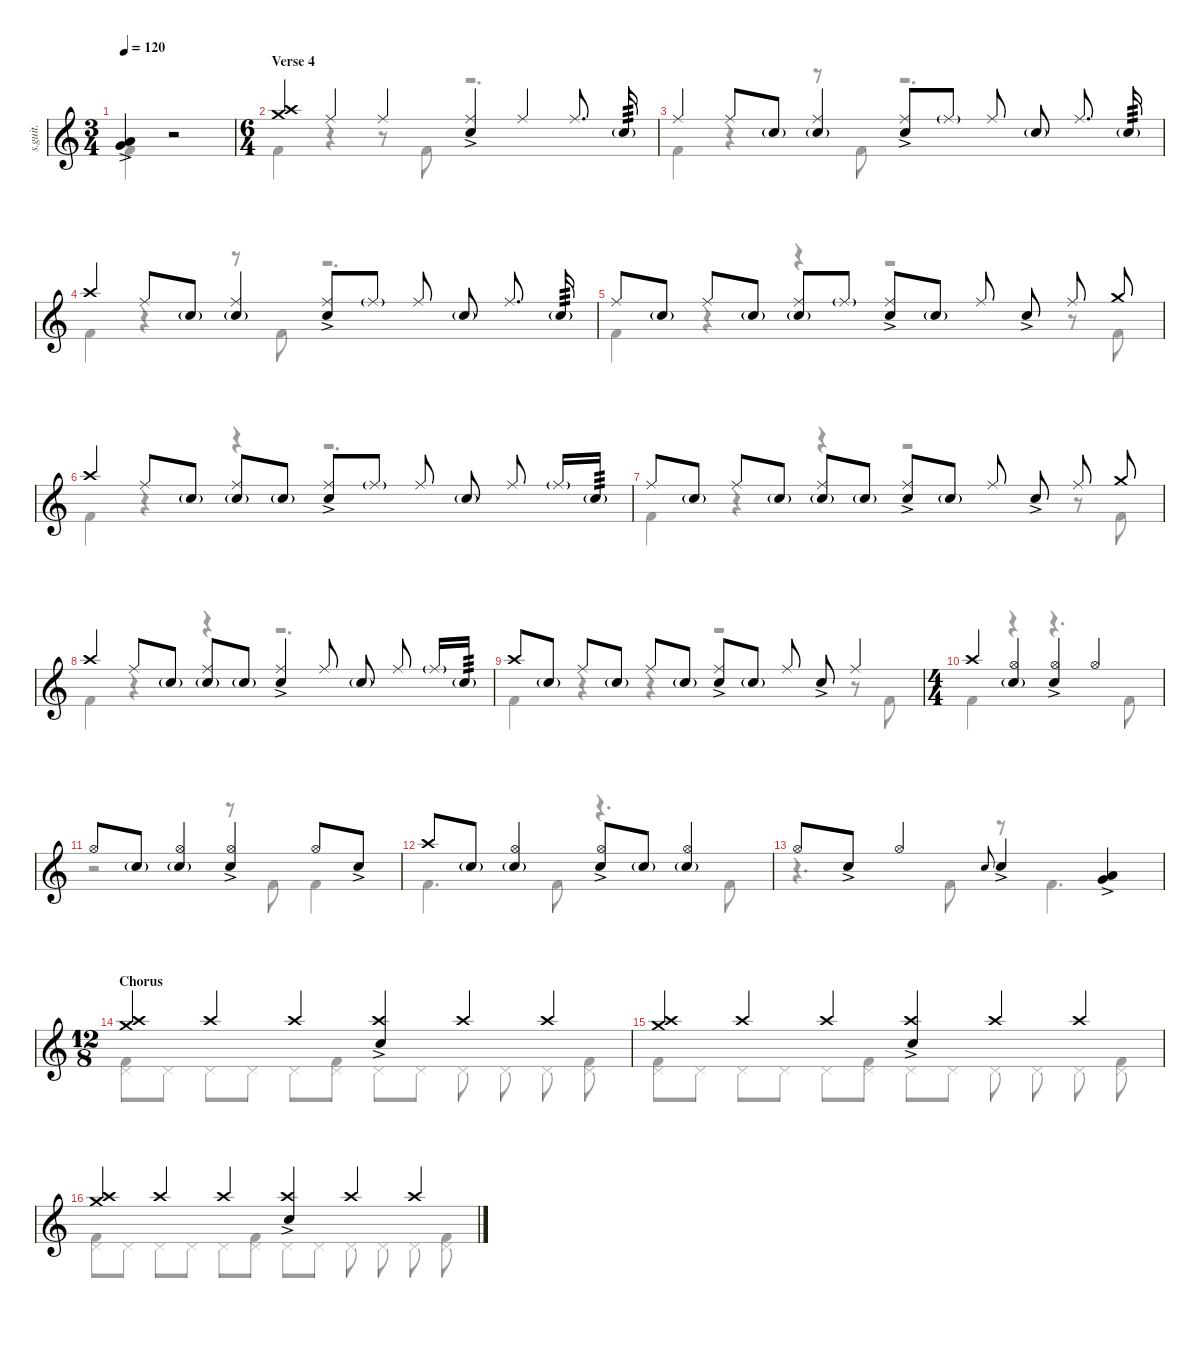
\defaultSystemsLayout 4
\hideDynamics
\bracketExtendMode nobrackets
\track ("Percussion" "s.guit.") {instrument percussion}
\staff {score}
\articulation defaults
\voice
\ts (3 4)
\beaming (8 2 2 2 2)
\tempo 120
\clef g2
\ks c
("Low Tom (hit)"{ac} "Very Low Tom (hit)"{ac}).4{lyrics (0 "") lyrics (1 "") lyrics (2 "") lyrics (3 "") lyrics (4 "") dy mp} r.2 |
\ts (6 4)
\beaming (8 2 2 2 2)
\section ("" "Verse 4")
("Crash high (hit)" "Crash medium (hit)").4{lyrics (0 "") lyrics (1 "") lyrics (2 "") lyrics (3 "") lyrics (4 "") dy mf} "Ride (middle)".4{lyrics (0 "") lyrics (1 "") lyrics (2 "") lyrics (3 "") lyrics (4 "")} "Ride (middle)".4{lyrics (0 "") lyrics (1 "") lyrics (2 "") lyrics (3 "") lyrics (4 "")} ("Ride (middle)" "Snare (hit) 2"{ac}).4{lyrics (0 "") lyrics (1 "") lyrics (2 "") lyrics (3 "") lyrics (4 "")} "Ride (middle)".4{lyrics (0 "") lyrics (1 "") lyrics (2 "") lyrics (3 "") lyrics (4 "")} "Ride (middle)".8{d lyrics (0 "") lyrics (1 "") lyrics (2 "") lyrics (3 "") lyrics (4 "")} "Snare (hit) 2"{g}.16{lyrics (0 "") lyrics (1 "") lyrics (2 "") lyrics (3 "") lyrics (4 "") tp 3 dy f} |
"Ride (middle)".4{lyrics (0 "") lyrics (1 "") lyrics (2 "") lyrics (3 "") lyrics (4 "") dy mf} "Ride (middle)".8{lyrics (0 "") lyrics (1 "") lyrics (2 "") lyrics (3 "") lyrics (4 "")} "Snare (hit) 2"{g}.8{lyrics (0 "") lyrics (1 "") lyrics (2 "") lyrics (3 "") lyrics (4 "") dy f} ("Ride (middle)" "Snare (hit) 2"{g}).4{lyrics (0 "") lyrics (1 "") lyrics (2 "") lyrics (3 "") lyrics (4 "") dy mf} ("Ride (middle)" "Snare (hit) 2"{ac}).8{lyrics (0 "") lyrics (1 "") lyrics (2 "") lyrics (3 "") lyrics (4 "")} "Ride (middle)"{g}.8{lyrics (0 "") lyrics (1 "") lyrics (2 "") lyrics (3 "") lyrics (4 "") dy f} "Ride (middle)".8{lyrics (0 "") lyrics (1 "") lyrics (2 "") lyrics (3 "") lyrics (4 "") dy mf} "Snare (hit) 2"{g}.8{lyrics (0 "") lyrics (1 "") lyrics (2 "") lyrics (3 "") lyrics (4 "") dy f} "Ride (middle)".8{d lyrics (0 "") lyrics (1 "") lyrics (2 "") lyrics (3 "") lyrics (4 "") dy mf} "Snare (hit) 2"{g}.16{lyrics (0 "") lyrics (1 "") lyrics (2 "") lyrics (3 "") lyrics (4 "") tp 3 dy f} |
"Crash high (hit)".4{lyrics (0 "") lyrics (1 "") lyrics (2 "") lyrics (3 "") lyrics (4 "") dy mf} "Ride (middle)".8{lyrics (0 "") lyrics (1 "") lyrics (2 "") lyrics (3 "") lyrics (4 "")} "Snare (hit) 2"{g}.8{lyrics (0 "") lyrics (1 "") lyrics (2 "") lyrics (3 "") lyrics (4 "") dy f} ("Ride (middle)" "Snare (hit) 2"{g}).4{lyrics (0 "") lyrics (1 "") lyrics (2 "") lyrics (3 "") lyrics (4 "") dy mf} ("Ride (middle)" "Snare (hit) 2"{ac}).8{lyrics (0 "") lyrics (1 "") lyrics (2 "") lyrics (3 "") lyrics (4 "")} "Ride (middle)"{g}.8{lyrics (0 "") lyrics (1 "") lyrics (2 "") lyrics (3 "") lyrics (4 "") dy f} "Ride (middle)".8{lyrics (0 "") lyrics (1 "") lyrics (2 "") lyrics (3 "") lyrics (4 "") dy mf} "Snare (hit) 2"{g}.8{lyrics (0 "") lyrics (1 "") lyrics (2 "") lyrics (3 "") lyrics (4 "") dy f} "Ride (middle)".8{d lyrics (0 "") lyrics (1 "") lyrics (2 "") lyrics (3 "") lyrics (4 "") dy mf} "Snare (hit) 2"{g}.16{lyrics (0 "") lyrics (1 "") lyrics (2 "") lyrics (3 "") lyrics (4 "") tp 3 dy f} |
"Ride (middle)".8{lyrics (0 "") lyrics (1 "") lyrics (2 "") lyrics (3 "") lyrics (4 "") dy mf} "Snare (hit) 2"{g}.8{lyrics (0 "") lyrics (1 "") lyrics (2 "") lyrics (3 "") lyrics (4 "") dy f} "Ride (middle)".8{lyrics (0 "") lyrics (1 "") lyrics (2 "") lyrics (3 "") lyrics (4 "") dy mf} "Snare (hit) 2"{g}.8{lyrics (0 "") lyrics (1 "") lyrics (2 "") lyrics (3 "") lyrics (4 "") dy f} ("Ride (middle)" "Snare (hit) 2"{g}).8{lyrics (0 "") lyrics (1 "") lyrics (2 "") lyrics (3 "") lyrics (4 "") dy mf} "Ride (middle)"{g}.8{lyrics (0 "") lyrics (1 "") lyrics (2 "") lyrics (3 "") lyrics (4 "") dy f} ("Ride (middle)" "Snare (hit) 2"{ac}).8{lyrics (0 "") lyrics (1 "") lyrics (2 "") lyrics (3 "") lyrics (4 "") dy mf} "Snare (hit) 2"{g}.8{lyrics (0 "") lyrics (1 "") lyrics (2 "") lyrics (3 "") lyrics (4 "") dy f} "Ride (middle)".8{lyrics (0 "") lyrics (1 "") lyrics (2 "") lyrics (3 "") lyrics (4 "") dy mf} "Snare (hit) 2"{ac}.8{lyrics (0 "") lyrics (1 "") lyrics (2 "") lyrics (3 "") lyrics (4 "") dy mp} "Ride (middle)".8{lyrics (0 "") lyrics (1 "") lyrics (2 "") lyrics (3 "") lyrics (4 "") dy mf} "Crash medium (hit)".8{lyrics (0 "") lyrics (1 "") lyrics (2 "") lyrics (3 "") lyrics (4 "")} |
"Crash high (hit)".4{lyrics (0 "") lyrics (1 "") lyrics (2 "") lyrics (3 "") lyrics (4 "")} "Ride (middle)".8{lyrics (0 "") lyrics (1 "") lyrics (2 "") lyrics (3 "") lyrics (4 "")} "Snare (hit) 2"{g}.8{lyrics (0 "") lyrics (1 "") lyrics (2 "") lyrics (3 "") lyrics (4 "") dy f} ("Ride (middle)" "Snare (hit) 2"{g}).8{lyrics (0 "") lyrics (1 "") lyrics (2 "") lyrics (3 "") lyrics (4 "") dy mf} "Snare (hit) 2"{g}.8{lyrics (0 "") lyrics (1 "") lyrics (2 "") lyrics (3 "") lyrics (4 "") dy f} ("Ride (middle)" "Snare (hit) 2"{ac}).8{lyrics (0 "") lyrics (1 "") lyrics (2 "") lyrics (3 "") lyrics (4 "") dy mf} "Ride (middle)"{g}.8{lyrics (0 "") lyrics (1 "") lyrics (2 "") lyrics (3 "") lyrics (4 "") dy f} "Ride (middle)".8{lyrics (0 "") lyrics (1 "") lyrics (2 "") lyrics (3 "") lyrics (4 "") dy mf} "Snare (hit) 2"{g}.8{lyrics (0 "") lyrics (1 "") lyrics (2 "") lyrics (3 "") lyrics (4 "") dy f} "Ride (middle)".8{lyrics (0 "") lyrics (1 "") lyrics (2 "") lyrics (3 "") lyrics (4 "") dy mf} "Ride (middle)"{g}.16{lyrics (0 "") lyrics (1 "") lyrics (2 "") lyrics (3 "") lyrics (4 "") dy f} "Snare (hit) 2"{g}.16{lyrics (0 "") lyrics (1 "") lyrics (2 "") lyrics (3 "") lyrics (4 "") tp 3} |
"Ride (middle)".8{lyrics (0 "") lyrics (1 "") lyrics (2 "") lyrics (3 "") lyrics (4 "") dy mf} "Snare (hit) 2"{g}.8{lyrics (0 "") lyrics (1 "") lyrics (2 "") lyrics (3 "") lyrics (4 "") dy f} "Ride (middle)".8{lyrics (0 "") lyrics (1 "") lyrics (2 "") lyrics (3 "") lyrics (4 "") dy mf} "Snare (hit) 2"{g}.8{lyrics (0 "") lyrics (1 "") lyrics (2 "") lyrics (3 "") lyrics (4 "") dy f} ("Ride (middle)" "Snare (hit) 2"{g}).8{lyrics (0 "") lyrics (1 "") lyrics (2 "") lyrics (3 "") lyrics (4 "") dy mf} "Snare (hit) 2"{g}.8{lyrics (0 "") lyrics (1 "") lyrics (2 "") lyrics (3 "") lyrics (4 "") dy f} ("Ride (middle)" "Snare (hit) 2"{ac}).8{lyrics (0 "") lyrics (1 "") lyrics (2 "") lyrics (3 "") lyrics (4 "") dy mf} "Snare (hit) 2"{g}.8{lyrics (0 "") lyrics (1 "") lyrics (2 "") lyrics (3 "") lyrics (4 "") dy f} "Ride (middle)".8{lyrics (0 "") lyrics (1 "") lyrics (2 "") lyrics (3 "") lyrics (4 "") dy mf} "Snare (hit) 2"{ac}.8{lyrics (0 "") lyrics (1 "") lyrics (2 "") lyrics (3 "") lyrics (4 "") dy mp} "Ride (middle)".8{lyrics (0 "") lyrics (1 "") lyrics (2 "") lyrics (3 "") lyrics (4 "") dy mf} "Crash medium (hit)".8{lyrics (0 "") lyrics (1 "") lyrics (2 "") lyrics (3 "") lyrics (4 "")} |
"Crash high (hit)".4{lyrics (0 "") lyrics (1 "") lyrics (2 "") lyrics (3 "") lyrics (4 "")} "Ride (middle)".8{lyrics (0 "") lyrics (1 "") lyrics (2 "") lyrics (3 "") lyrics (4 "")} "Snare (hit) 2"{g}.8{lyrics (0 "") lyrics (1 "") lyrics (2 "") lyrics (3 "") lyrics (4 "") dy f} ("Ride (middle)" "Snare (hit) 2"{g}).8{lyrics (0 "") lyrics (1 "") lyrics (2 "") lyrics (3 "") lyrics (4 "") dy mf} "Snare (hit) 2"{g}.8{lyrics (0 "") lyrics (1 "") lyrics (2 "") lyrics (3 "") lyrics (4 "") dy f} ("Ride (middle)" "Snare (hit) 2"{ac}).4{lyrics (0 "") lyrics (1 "") lyrics (2 "") lyrics (3 "") lyrics (4 "") dy mf} "Ride (middle)".8{lyrics (0 "") lyrics (1 "") lyrics (2 "") lyrics (3 "") lyrics (4 "")} "Snare (hit) 2"{g}.8{lyrics (0 "") lyrics (1 "") lyrics (2 "") lyrics (3 "") lyrics (4 "") dy f} "Ride (middle)".8{lyrics (0 "") lyrics (1 "") lyrics (2 "") lyrics (3 "") lyrics (4 "") dy mf} "Ride (middle)"{g}.16{lyrics (0 "") lyrics (1 "") lyrics (2 "") lyrics (3 "") lyrics (4 "") dy f} "Snare (hit) 2"{g}.16{lyrics (0 "") lyrics (1 "") lyrics (2 "") lyrics (3 "") lyrics (4 "") tp 3} |
"Crash high (hit)".8{lyrics (0 "") lyrics (1 "") lyrics (2 "") lyrics (3 "") lyrics (4 "") dy mf} "Snare (hit) 2"{g}.8{lyrics (0 "") lyrics (1 "") lyrics (2 "") lyrics (3 "") lyrics (4 "") dy f} "Ride (middle)".8{lyrics (0 "") lyrics (1 "") lyrics (2 "") lyrics (3 "") lyrics (4 "") dy mf} "Snare (hit) 2"{g}.8{lyrics (0 "") lyrics (1 "") lyrics (2 "") lyrics (3 "") lyrics (4 "") dy f} "Ride (middle)".8{lyrics (0 "") lyrics (1 "") lyrics (2 "") lyrics (3 "") lyrics (4 "") dy mf} "Snare (hit) 2"{g}.8{lyrics (0 "") lyrics (1 "") lyrics (2 "") lyrics (3 "") lyrics (4 "") dy f} ("Ride (middle)" "Snare (hit) 2"{ac}).8{lyrics (0 "") lyrics (1 "") lyrics (2 "") lyrics (3 "") lyrics (4 "") dy mf} "Snare (hit) 2"{g}.8{lyrics (0 "") lyrics (1 "") lyrics (2 "") lyrics (3 "") lyrics (4 "") dy f} "Ride (middle)".8{lyrics (0 "") lyrics (1 "") lyrics (2 "") lyrics (3 "") lyrics (4 "") dy mf} "Snare (hit) 2"{ac}.8{lyrics (0 "") lyrics (1 "") lyrics (2 "") lyrics (3 "") lyrics (4 "") dy mp} "Ride (middle)".4{lyrics (0 "") lyrics (1 "") lyrics (2 "") lyrics (3 "") lyrics (4 "") dy mf} |
\ts (4 4)
\beaming (8 2 2 2 2)
"Crash high (hit)".4{lyrics (0 "") lyrics (1 "") lyrics (2 "") lyrics (3 "") lyrics (4 "")} ("Hi-Hat (open)" "Snare (hit) 2"{g}).4{lyrics (0 "") lyrics (1 "") lyrics (2 "") lyrics (3 "") lyrics (4 "")} ("Hi-Hat (open)" "Snare (hit) 2"{ac}).4{lyrics (0 "") lyrics (1 "") lyrics (2 "") lyrics (3 "") lyrics (4 "")} "Hi-Hat (open)".4{lyrics (0 "") lyrics (1 "") lyrics (2 "") lyrics (3 "") lyrics (4 "")} |
"Hi-Hat (open)".8{lyrics (0 "") lyrics (1 "") lyrics (2 "") lyrics (3 "") lyrics (4 "")} "Snare (hit) 2"{g}.8{lyrics (0 "") lyrics (1 "") lyrics (2 "") lyrics (3 "") lyrics (4 "") dy f} ("Snare (hit) 2"{g} "Hi-Hat (open)").4{lyrics (0 "") lyrics (1 "") lyrics (2 "") lyrics (3 "") lyrics (4 "") dy mf} ("Hi-Hat (open)" "Snare (hit) 2"{ac}).4{lyrics (0 "") lyrics (1 "") lyrics (2 "") lyrics (3 "") lyrics (4 "")} "Hi-Hat (open)".8{lyrics (0 "") lyrics (1 "") lyrics (2 "") lyrics (3 "") lyrics (4 "")} "Snare (hit) 2"{ac}.8{lyrics (0 "") lyrics (1 "") lyrics (2 "") lyrics (3 "") lyrics (4 "") dy mp} |
"Crash high (hit)".8{lyrics (0 "") lyrics (1 "") lyrics (2 "") lyrics (3 "") lyrics (4 "") dy mf} "Snare (hit) 2"{g}.8{lyrics (0 "") lyrics (1 "") lyrics (2 "") lyrics (3 "") lyrics (4 "") dy f} ("Snare (hit) 2"{g} "Hi-Hat (open)").4{lyrics (0 "") lyrics (1 "") lyrics (2 "") lyrics (3 "") lyrics (4 "") dy mf} ("Snare (hit) 2"{ac} "Hi-Hat (open)").8{lyrics (0 "") lyrics (1 "") lyrics (2 "") lyrics (3 "") lyrics (4 "")} "Snare (hit) 2"{g}.8{lyrics (0 "") lyrics (1 "") lyrics (2 "") lyrics (3 "") lyrics (4 "") dy f} ("Snare (hit) 2"{g} "Hi-Hat (open)").4{lyrics (0 "") lyrics (1 "") lyrics (2 "") lyrics (3 "") lyrics (4 "") dy mf} |
"Hi-Hat (open)".8{lyrics (0 "") lyrics (1 "") lyrics (2 "") lyrics (3 "") lyrics (4 "")} "Snare (hit) 2"{ac}.8{lyrics (0 "") lyrics (1 "") lyrics (2 "") lyrics (3 "") lyrics (4 "") dy mp} "Hi-Hat (open)".4{lyrics (0 "") lyrics (1 "") lyrics (2 "") lyrics (3 "") lyrics (4 "") dy mf} "Snare (hit) 2".8{lyrics (0 "") lyrics (1 "") lyrics (2 "") lyrics (3 "") lyrics (4 "") gr onbeat dy mp} "Snare (hit) 2"{ac}.4{lyrics (0 "") lyrics (1 "") lyrics (2 "") lyrics (3 "") lyrics (4 "")} ("Low Tom (hit)"{ac} "Very Low Tom (hit)"{ac}).4{lyrics (0 "") lyrics (1 "") lyrics (2 "") lyrics (3 "") lyrics (4 "")} |
\ts (12 8)
\beaming (8 2 2 2 2)
\section ("" "Chorus")
("Crash medium (hit)" "Crash high (hit)").4{lyrics (0 "") lyrics (1 "") lyrics (2 "") lyrics (3 "") lyrics (4 "") dy f} "Crash high (hit)".4{lyrics (0 "") lyrics (1 "") lyrics (2 "") lyrics (3 "") lyrics (4 "")} "Crash high (hit)".4{lyrics (0 "") lyrics (1 "") lyrics (2 "") lyrics (3 "") lyrics (4 "")} ("Crash high (hit)" "Snare (hit) 2"{ac}).4{lyrics (0 "") lyrics (1 "") lyrics (2 "") lyrics (3 "") lyrics (4 "")} "Crash high (hit)".4{lyrics (0 "") lyrics (1 "") lyrics (2 "") lyrics (3 "") lyrics (4 "")} "Crash high (hit)".4{lyrics (0 "") lyrics (1 "") lyrics (2 "") lyrics (3 "") lyrics (4 "")} |
("Crash medium (hit)" "Crash high (hit)").4{lyrics (0 "") lyrics (1 "") lyrics (2 "") lyrics (3 "") lyrics (4 "")} "Crash high (hit)".4{lyrics (0 "") lyrics (1 "") lyrics (2 "") lyrics (3 "") lyrics (4 "")} "Crash high (hit)".4{lyrics (0 "") lyrics (1 "") lyrics (2 "") lyrics (3 "") lyrics (4 "")} ("Crash high (hit)" "Snare (hit) 2"{ac}).4{lyrics (0 "") lyrics (1 "") lyrics (2 "") lyrics (3 "") lyrics (4 "")} "Crash high (hit)".4{lyrics (0 "") lyrics (1 "") lyrics (2 "") lyrics (3 "") lyrics (4 "")} "Crash high (hit)".4{lyrics (0 "") lyrics (1 "") lyrics (2 "") lyrics (3 "") lyrics (4 "")} |
("Crash medium (hit)" "Crash high (hit)").4{lyrics (0 "") lyrics (1 "") lyrics (2 "") lyrics (3 "") lyrics (4 "")} "Crash high (hit)".4{lyrics (0 "") lyrics (1 "") lyrics (2 "") lyrics (3 "") lyrics (4 "")} "Crash high (hit)".4{lyrics (0 "") lyrics (1 "") lyrics (2 "") lyrics (3 "") lyrics (4 "")} ("Crash high (hit)" "Snare (hit) 2"{ac}).4{lyrics (0 "") lyrics (1 "") lyrics (2 "") lyrics (3 "") lyrics (4 "")} "Crash high (hit)".4{lyrics (0 "") lyrics (1 "") lyrics (2 "") lyrics (3 "") lyrics (4 "")} "Crash high (hit)".4{lyrics (0 "") lyrics (1 "") lyrics (2 "") lyrics (3 "") lyrics (4 "")}
\voice
\clef g2
\ottava regular
\simile none
\ks c "Kick (hit) 2".4{lyrics (0 "") lyrics (1 "") lyrics (2 "") lyrics (3 "") lyrics (4 "") dy mf}
r.2 |
"Kick (hit) 2".4{lyrics (0 "") lyrics (1 "") lyrics (2 "") lyrics (3 "") lyrics (4 "")} r.4 r.8 "Kick (hit) 2".8{lyrics (0 "") lyrics (1 "") lyrics (2 "") lyrics (3 "") lyrics (4 "")} r.2{d} |
"Kick (hit) 2".4{lyrics (0 "") lyrics (1 "") lyrics (2 "") lyrics (3 "") lyrics (4 "")} r.4 r.8 "Kick (hit) 2".8{lyrics (0 "") lyrics (1 "") lyrics (2 "") lyrics (3 "") lyrics (4 "")} r.2{d} |
"Kick (hit) 2".4{lyrics (0 "") lyrics (1 "") lyrics (2 "") lyrics (3 "") lyrics (4 "")} r.4 r.8 "Kick (hit) 2".8{lyrics (0 "") lyrics (1 "") lyrics (2 "") lyrics (3 "") lyrics (4 "")} r.2{d} |
"Kick (hit) 2".4{lyrics (0 "") lyrics (1 "") lyrics (2 "") lyrics (3 "") lyrics (4 "")} r.4 r.4 r.2 r.8 "Kick (hit) 2".8{lyrics (0 "") lyrics (1 "") lyrics (2 "") lyrics (3 "") lyrics (4 "")} |
"Kick (hit) 2".4{lyrics (0 "") lyrics (1 "") lyrics (2 "") lyrics (3 "") lyrics (4 "")} r.4 r.4 r.2{d} |
"Kick (hit) 2".4{lyrics (0 "") lyrics (1 "") lyrics (2 "") lyrics (3 "") lyrics (4 "")} r.4 r.4 r.2 r.8 "Kick (hit) 2".8{lyrics (0 "") lyrics (1 "") lyrics (2 "") lyrics (3 "") lyrics (4 "")} |
"Kick (hit) 2".4{lyrics (0 "") lyrics (1 "") lyrics (2 "") lyrics (3 "") lyrics (4 "")} r.4 r.4 r.2{d} |
"Kick (hit) 2".4{lyrics (0 "") lyrics (1 "") lyrics (2 "") lyrics (3 "") lyrics (4 "")} r.4 r.4 r.2 r.8 "Kick (hit) 2".8{lyrics (0 "") lyrics (1 "") lyrics (2 "") lyrics (3 "") lyrics (4 "")} |
"Kick (hit) 2".4{lyrics (0 "") lyrics (1 "") lyrics (2 "") lyrics (3 "") lyrics (4 "")} r.4 r.4{d} "Kick (hit) 2".8{lyrics (0 "") lyrics (1 "") lyrics (2 "") lyrics (3 "") lyrics (4 "")} |
r.2 r.8 "Kick (hit) 2".8{lyrics (0 "") lyrics (1 "") lyrics (2 "") lyrics (3 "") lyrics (4 "")} "Kick (hit) 2".4{lyrics (0 "") lyrics (1 "") lyrics (2 "") lyrics (3 "") lyrics (4 "")} |
"Kick (hit) 2".4{d lyrics (0 "") lyrics (1 "") lyrics (2 "") lyrics (3 "") lyrics (4 "")} "Kick (hit) 2".8{lyrics (0 "") lyrics (1 "") lyrics (2 "") lyrics (3 "") lyrics (4 "")} r.4{d} "Kick (hit) 2".8{lyrics (0 "") lyrics (1 "") lyrics (2 "") lyrics (3 "") lyrics (4 "")} |
r.4{d} "Kick (hit) 2".8{lyrics (0 "") lyrics (1 "") lyrics (2 "") lyrics (3 "") lyrics (4 "")} r.8 "Kick (hit) 2".4{d lyrics (0 "") lyrics (1 "") lyrics (2 "") lyrics (3 "") lyrics (4 "")} |
("Kick (hit) 2" "Pedal Hi-Hat (hit)").8{lyrics (0 "") lyrics (1 "") lyrics (2 "") lyrics (3 "") lyrics (4 "") dy f} "Pedal Hi-Hat (hit)".8{lyrics (0 "") lyrics (1 "") lyrics (2 "") lyrics (3 "") lyrics (4 "")} "Pedal Hi-Hat (hit)".8{lyrics (0 "") lyrics (1 "") lyrics (2 "") lyrics (3 "") lyrics (4 "")} "Pedal Hi-Hat (hit)".8{lyrics (0 "") lyrics (1 "") lyrics (2 "") lyrics (3 "") lyrics (4 "")} "Pedal Hi-Hat (hit)".8{lyrics (0 "") lyrics (1 "") lyrics (2 "") lyrics (3 "") lyrics (4 "")} ("Pedal Hi-Hat (hit)" "Kick (hit) 2").8{lyrics (0 "") lyrics (1 "") lyrics (2 "") lyrics (3 "") lyrics (4 "")} "Pedal Hi-Hat (hit)".8{lyrics (0 "") lyrics (1 "") lyrics (2 "") lyrics (3 "") lyrics (4 "")} "Pedal Hi-Hat (hit)".8{lyrics (0 "") lyrics (1 "") lyrics (2 "") lyrics (3 "") lyrics (4 "")} "Pedal Hi-Hat (hit)".8{lyrics (0 "") lyrics (1 "") lyrics (2 "") lyrics (3 "") lyrics (4 "")} "Pedal Hi-Hat (hit)".8{lyrics (0 "") lyrics (1 "") lyrics (2 "") lyrics (3 "") lyrics (4 "")} "Pedal Hi-Hat (hit)".8{lyrics (0 "") lyrics (1 "") lyrics (2 "") lyrics (3 "") lyrics (4 "")} ("Pedal Hi-Hat (hit)" "Kick (hit) 2").8{lyrics (0 "") lyrics (1 "") lyrics (2 "") lyrics (3 "") lyrics (4 "")} |
("Kick (hit) 2" "Pedal Hi-Hat (hit)").8{lyrics (0 "") lyrics (1 "") lyrics (2 "") lyrics (3 "") lyrics (4 "")} "Pedal Hi-Hat (hit)".8{lyrics (0 "") lyrics (1 "") lyrics (2 "") lyrics (3 "") lyrics (4 "")} "Pedal Hi-Hat (hit)".8{lyrics (0 "") lyrics (1 "") lyrics (2 "") lyrics (3 "") lyrics (4 "")} "Pedal Hi-Hat (hit)".8{lyrics (0 "") lyrics (1 "") lyrics (2 "") lyrics (3 "") lyrics (4 "")} "Pedal Hi-Hat (hit)".8{lyrics (0 "") lyrics (1 "") lyrics (2 "") lyrics (3 "") lyrics (4 "")} ("Pedal Hi-Hat (hit)" "Kick (hit) 2").8{lyrics (0 "") lyrics (1 "") lyrics (2 "") lyrics (3 "") lyrics (4 "")} "Pedal Hi-Hat (hit)".8{lyrics (0 "") lyrics (1 "") lyrics (2 "") lyrics (3 "") lyrics (4 "")} "Pedal Hi-Hat (hit)".8{lyrics (0 "") lyrics (1 "") lyrics (2 "") lyrics (3 "") lyrics (4 "")} "Pedal Hi-Hat (hit)".8{lyrics (0 "") lyrics (1 "") lyrics (2 "") lyrics (3 "") lyrics (4 "")} "Pedal Hi-Hat (hit)".8{lyrics (0 "") lyrics (1 "") lyrics (2 "") lyrics (3 "") lyrics (4 "")} "Pedal Hi-Hat (hit)".8{lyrics (0 "") lyrics (1 "") lyrics (2 "") lyrics (3 "") lyrics (4 "")} ("Pedal Hi-Hat (hit)" "Kick (hit) 2").8{lyrics (0 "") lyrics (1 "") lyrics (2 "") lyrics (3 "") lyrics (4 "")} |
("Kick (hit) 2" "Pedal Hi-Hat (hit)").8{lyrics (0 "") lyrics (1 "") lyrics (2 "") lyrics (3 "") lyrics (4 "")} "Pedal Hi-Hat (hit)".8{lyrics (0 "") lyrics (1 "") lyrics (2 "") lyrics (3 "") lyrics (4 "")} "Pedal Hi-Hat (hit)".8{lyrics (0 "") lyrics (1 "") lyrics (2 "") lyrics (3 "") lyrics (4 "")} "Pedal Hi-Hat (hit)".8{lyrics (0 "") lyrics (1 "") lyrics (2 "") lyrics (3 "") lyrics (4 "")} "Pedal Hi-Hat (hit)".8{lyrics (0 "") lyrics (1 "") lyrics (2 "") lyrics (3 "") lyrics (4 "")} ("Pedal Hi-Hat (hit)" "Kick (hit) 2").8{lyrics (0 "") lyrics (1 "") lyrics (2 "") lyrics (3 "") lyrics (4 "")} "Pedal Hi-Hat (hit)".8{lyrics (0 "") lyrics (1 "") lyrics (2 "") lyrics (3 "") lyrics (4 "")} "Pedal Hi-Hat (hit)".8{lyrics (0 "") lyrics (1 "") lyrics (2 "") lyrics (3 "") lyrics (4 "")} "Pedal Hi-Hat (hit)".8{lyrics (0 "") lyrics (1 "") lyrics (2 "") lyrics (3 "") lyrics (4 "")} "Pedal Hi-Hat (hit)".8{lyrics (0 "") lyrics (1 "") lyrics (2 "") lyrics (3 "") lyrics (4 "")} "Pedal Hi-Hat (hit)".8{lyrics (0 "") lyrics (1 "") lyrics (2 "") lyrics (3 "") lyrics (4 "")} ("Pedal Hi-Hat (hit)" "Kick (hit) 2").8{lyrics (0 "") lyrics (1 "") lyrics (2 "") lyrics (3 "") lyrics (4 "")}
